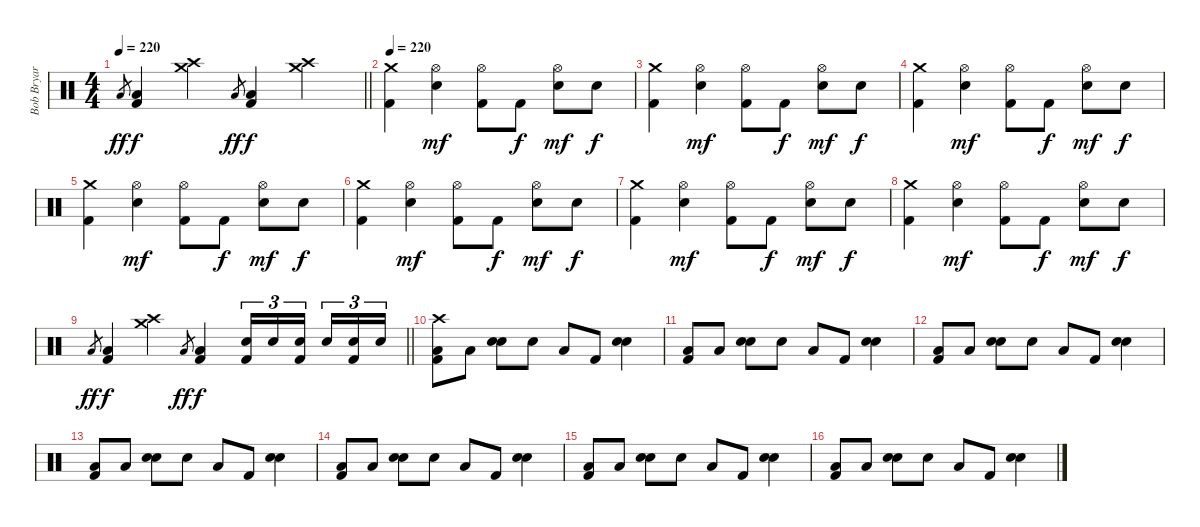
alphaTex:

\track ("Bob Bryar" "Bob Bryar") {instrument percussion}
\staff {score}
\articulation defaults
\ts (4 4)
\tempo 220
\clef neutral
\barLineRight lightlight
\ks c "Low Floor Tom (hit)".8{gr dy ff}
("Low Floor Tom (hit)" "Kick (hit) 2").4{dy f} ("Crash medium (hit)" "Crash high (hit)").4 "Low Floor Tom (hit)".8{gr dy ff} ("Low Floor Tom (hit)" "Kick (hit) 2").4{dy f} ("Crash medium (hit)" "Crash high (hit)").4 |
\tempo 220
("Crash medium (hit)" "Kick (hit) 2").4 ("Hi-Hat (open)" "Electric Snare (hit)").4{dy mf} ("Hi-Hat (open)" "Kick (hit) 2").8 "Kick (hit) 2".8{dy f} ("Hi-Hat (open)" "Electric Snare (hit)").8{dy mf} "Electric Snare (hit)".8{dy f} |
("Crash medium (hit)" "Kick (hit) 2").4 ("Hi-Hat (open)" "Electric Snare (hit)").4{dy mf} ("Hi-Hat (open)" "Kick (hit) 2").8 "Kick (hit) 2".8{dy f} ("Hi-Hat (open)" "Electric Snare (hit)").8{dy mf} "Electric Snare (hit)".8{dy f} |
("Crash medium (hit)" "Kick (hit) 2").4 ("Hi-Hat (open)" "Electric Snare (hit)").4{dy mf} ("Hi-Hat (open)" "Kick (hit) 2").8 "Kick (hit) 2".8{dy f} ("Hi-Hat (open)" "Electric Snare (hit)").8{dy mf} "Electric Snare (hit)".8{dy f} |
("Crash medium (hit)" "Kick (hit) 2").4 ("Hi-Hat (open)" "Electric Snare (hit)").4{dy mf} ("Hi-Hat (open)" "Kick (hit) 2").8 "Kick (hit) 2".8{dy f} ("Hi-Hat (open)" "Electric Snare (hit)").8{dy mf} "Electric Snare (hit)".8{dy f} |
("Crash medium (hit)" "Kick (hit) 2").4 ("Hi-Hat (open)" "Electric Snare (hit)").4{dy mf} ("Hi-Hat (open)" "Kick (hit) 2").8 "Kick (hit) 2".8{dy f} ("Hi-Hat (open)" "Electric Snare (hit)").8{dy mf} "Electric Snare (hit)".8{dy f} |
("Crash medium (hit)" "Kick (hit) 2").4 ("Hi-Hat (open)" "Electric Snare (hit)").4{dy mf} ("Hi-Hat (open)" "Kick (hit) 2").8 "Kick (hit) 2".8{dy f} ("Hi-Hat (open)" "Electric Snare (hit)").8{dy mf} "Electric Snare (hit)".8{dy f} |
("Crash medium (hit)" "Kick (hit) 2").4 ("Hi-Hat (open)" "Electric Snare (hit)").4{dy mf} ("Hi-Hat (open)" "Kick (hit) 2").8 "Kick (hit) 2".8{dy f} ("Hi-Hat (open)" "Electric Snare (hit)").8{dy mf} "Electric Snare (hit)".8{dy f} |
\barLineRight lightlight "Low Floor Tom (hit)".8{gr dy ff}
("Low Floor Tom (hit)" "Kick (hit) 2").4{dy f} ("Crash medium (hit)" "Crash high (hit)").4 "Low Floor Tom (hit)".8{gr dy ff} ("Low Floor Tom (hit)" "Kick (hit) 2").4{dy f} ("Snare (hit) 2" "Kick (hit) 2").16{tu (3 2)} "Snare (hit) 2".16{tu (3 2)} ("Snare (hit) 2" "Kick (hit) 2").16{tu (3 2) beam splitsecondary} "Snare (hit) 2".16{tu (3 2)} ("Snare (hit) 2" "Kick (hit) 2").16{tu (3 2)} "Snare (hit) 2".16{tu (3 2)} |
("Crash high (hit)" "Low Floor Tom (hit)" "Kick (hit) 2").8 "Low Floor Tom (hit)".8 ("Hand Clap (hit)" "Electric Snare (hit)").8 "Hand Clap (hit)".8 "Low Floor Tom (hit)".8 "Kick (hit) 2".8 ("Hand Clap (hit)" "Electric Snare (hit)").4 |
("Low Floor Tom (hit)" "Kick (hit) 2").8 "Low Floor Tom (hit)".8 ("Hand Clap (hit)" "Electric Snare (hit)").8 "Hand Clap (hit)".8 "Low Floor Tom (hit)".8 "Kick (hit) 2".8 ("Hand Clap (hit)" "Electric Snare (hit)").4 |
("Low Floor Tom (hit)" "Kick (hit) 2").8 "Low Floor Tom (hit)".8 ("Hand Clap (hit)" "Electric Snare (hit)").8 "Hand Clap (hit)".8 "Low Floor Tom (hit)".8 "Kick (hit) 2".8 ("Hand Clap (hit)" "Electric Snare (hit)").4 |
("Low Floor Tom (hit)" "Kick (hit) 2").8 "Low Floor Tom (hit)".8 ("Hand Clap (hit)" "Electric Snare (hit)").8 "Hand Clap (hit)".8 "Low Floor Tom (hit)".8 "Kick (hit) 2".8 ("Hand Clap (hit)" "Electric Snare (hit)").4 |
("Low Floor Tom (hit)" "Kick (hit) 2").8 "Low Floor Tom (hit)".8 ("Hand Clap (hit)" "Electric Snare (hit)").8 "Hand Clap (hit)".8 "Low Floor Tom (hit)".8 "Kick (hit) 2".8 ("Hand Clap (hit)" "Electric Snare (hit)").4 |
("Low Floor Tom (hit)" "Kick (hit) 2").8 "Low Floor Tom (hit)".8 ("Hand Clap (hit)" "Electric Snare (hit)").8 "Hand Clap (hit)".8 "Low Floor Tom (hit)".8 "Kick (hit) 2".8 ("Hand Clap (hit)" "Electric Snare (hit)").4 |
("Low Floor Tom (hit)" "Kick (hit) 2").8 "Low Floor Tom (hit)".8 ("Hand Clap (hit)" "Electric Snare (hit)").8 "Hand Clap (hit)".8 "Low Floor Tom (hit)".8 "Kick (hit) 2".8 ("Hand Clap (hit)" "Electric Snare (hit)").4
